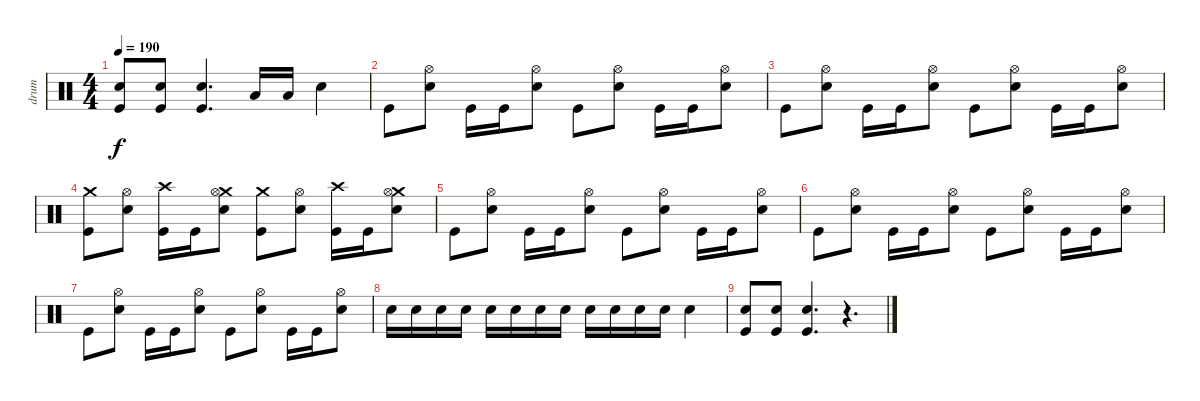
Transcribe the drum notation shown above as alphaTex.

\track ("drum" "drum") {instrument percussion}
\staff {score}
\articulation defaults
\ts (4 4)
\tempo 190
\clef neutral
\ks c
("Snare (hit) 2" "Kick (hit)").8{dy f} ("Snare (hit) 2" "Kick (hit)").8 ("Snare (hit) 2" "Kick (hit)").4{d} "Low Tom (hit)".16 "Low Tom (hit)".16 "Snare (hit) 2".4 |
"Kick (hit)".8 ("Hi-Hat (open)" "Snare (hit) 2").8 "Kick (hit)".16 "Kick (hit)".16 ("Hi-Hat (open)" "Snare (hit) 2").8 "Kick (hit)".8 ("Hi-Hat (open)" "Snare (hit) 2").8 "Kick (hit)".16 "Kick (hit)".16 ("Hi-Hat (open)" "Snare (hit) 2").8 |
"Kick (hit)".8 ("Hi-Hat (open)" "Snare (hit) 2").8 "Kick (hit)".16 "Kick (hit)".16 ("Hi-Hat (open)" "Snare (hit) 2").8 "Kick (hit)".8 ("Hi-Hat (open)" "Snare (hit) 2").8 "Kick (hit)".16 "Kick (hit)".16 ("Hi-Hat (open)" "Snare (hit) 2").8 |
("Crash medium (hit)" "Kick (hit)").8 ("Hi-Hat (open)" "Snare (hit) 2").8 ("Crash high (hit)" "Kick (hit)").16 "Kick (hit)".16 ("Crash medium (hit)" "Hi-Hat (open)" "Snare (hit) 2").8 ("Crash medium (hit)" "Kick (hit)").8 ("Hi-Hat (open)" "Snare (hit) 2").8 ("Crash high (hit)" "Kick (hit)").16 "Kick (hit)".16 ("Crash medium (hit)" "Hi-Hat (open)" "Snare (hit) 2").8 |
"Kick (hit)".8 ("Hi-Hat (open)" "Snare (hit) 2").8 "Kick (hit)".16 "Kick (hit)".16 ("Hi-Hat (open)" "Snare (hit) 2").8 "Kick (hit)".8 ("Hi-Hat (open)" "Snare (hit) 2").8 "Kick (hit)".16 "Kick (hit)".16 ("Hi-Hat (open)" "Snare (hit) 2").8 |
"Kick (hit)".8 ("Hi-Hat (open)" "Snare (hit) 2").8 "Kick (hit)".16 "Kick (hit)".16 ("Hi-Hat (open)" "Snare (hit) 2").8 "Kick (hit)".8 ("Hi-Hat (open)" "Snare (hit) 2").8 "Kick (hit)".16 "Kick (hit)".16 ("Hi-Hat (open)" "Snare (hit) 2").8 |
"Kick (hit)".8 ("Hi-Hat (open)" "Snare (hit) 2").8 "Kick (hit)".16 "Kick (hit)".16 ("Hi-Hat (open)" "Snare (hit) 2").8 "Kick (hit)".8 ("Hi-Hat (open)" "Snare (hit) 2").8 "Kick (hit)".16 "Kick (hit)".16 ("Hi-Hat (open)" "Snare (hit) 2").8 |
"Snare (hit) 2".16 "Snare (hit) 2".16 "Snare (hit) 2".16 "Snare (hit) 2".16 "Snare (hit) 2".16 "Snare (hit) 2".16 "Snare (hit) 2".16 "Snare (hit) 2".16 "Snare (hit) 2".16 "Snare (hit) 2".16 "Snare (hit) 2".16 "Snare (hit) 2".16 "Snare (hit) 2".4 |
("Snare (hit) 2" "Kick (hit)").8 ("Snare (hit) 2" "Kick (hit)").8 ("Snare (hit) 2" "Kick (hit)").4{d} r.4{d}
